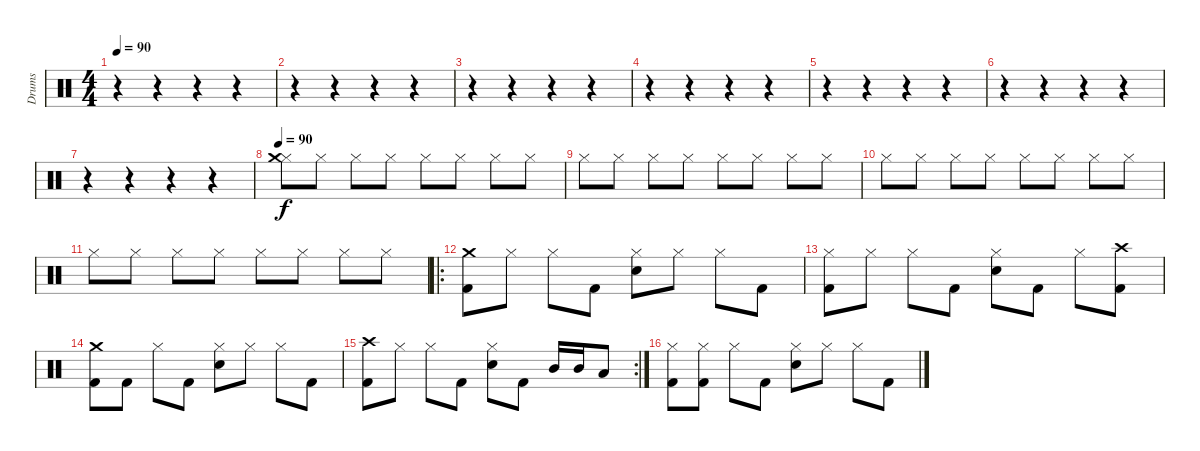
\track ("Drums" "Drums") {instrument percussion}
\staff {score}
\articulation defaults
\ts (4 4)
\tempo 90
\clef neutral
\ks c
r.4{dy f} r.4 r.4 r.4 |
r.4 r.4 r.4 r.4 |
r.4 r.4 r.4 r.4 |
r.4 r.4 r.4 r.4 |
r.4 r.4 r.4 r.4 |
r.4 r.4 r.4 r.4 |
r.4 r.4 r.4 r.4 |
\tempo 90
("Hi-Hat (closed)" "Crash medium (hit)").8 "Hi-Hat (closed)".8 "Hi-Hat (closed)".8 "Hi-Hat (closed)".8 "Hi-Hat (closed)".8 "Hi-Hat (closed)".8 "Hi-Hat (closed)".8 "Hi-Hat (closed)".8 |
"Hi-Hat (closed)".8 "Hi-Hat (closed)".8 "Hi-Hat (closed)".8 "Hi-Hat (closed)".8 "Hi-Hat (closed)".8 "Hi-Hat (closed)".8 "Hi-Hat (closed)".8 "Hi-Hat (closed)".8 |
"Hi-Hat (closed)".8 "Hi-Hat (closed)".8 "Hi-Hat (closed)".8 "Hi-Hat (closed)".8 "Hi-Hat (closed)".8 "Hi-Hat (closed)".8 "Hi-Hat (closed)".8 "Hi-Hat (closed)".8 |
"Hi-Hat (closed)".8 "Hi-Hat (closed)".8 "Hi-Hat (closed)".8 "Hi-Hat (closed)".8 "Hi-Hat (closed)".8 "Hi-Hat (closed)".8 "Hi-Hat (closed)".8 "Hi-Hat (closed)".8 |
\ro
("Crash medium (hit)" "Kick (hit) 2").8 "Hi-Hat (closed)".8 "Hi-Hat (closed)".8 "Kick (hit) 2".8 ("Hi-Hat (closed)" "Snare (hit) 2").8 "Hi-Hat (closed)".8 "Hi-Hat (closed)".8 "Kick (hit) 2".8 |
("Kick (hit) 2" "Hi-Hat (closed)").8 "Hi-Hat (closed)".8 "Hi-Hat (closed)".8 "Kick (hit) 2".8 ("Snare (hit) 2" "Hi-Hat (closed)").8 "Kick (hit) 2".8 "Hi-Hat (closed)".8 ("Kick (hit) 2" "Crash high (hit)").8 |
("Crash medium (hit)" "Kick (hit) 2").8 "Kick (hit) 2".8 "Hi-Hat (closed)".8 "Kick (hit) 2".8 ("Hi-Hat (closed)" "Snare (hit) 2").8 "Hi-Hat (closed)".8 "Hi-Hat (closed)".8 "Kick (hit) 2".8 |
\rc 2
("Kick (hit) 2" "Crash high (hit)").8 "Hi-Hat (closed)".8 "Hi-Hat (closed)".8 "Kick (hit) 2".8 ("Snare (hit) 2" "Hi-Hat (closed)").8 "Kick (hit) 2".8 "Mid Tom (hit)".16 "Mid Tom (hit)".16 "Low Tom (hit)".8 |
("Hi-Hat (closed)" "Kick (hit) 2").8 ("Kick (hit) 2" "Hi-Hat (closed)").8 "Hi-Hat (closed)".8 "Kick (hit) 2".8 ("Hi-Hat (closed)" "Snare (hit) 2").8 "Hi-Hat (closed)".8 "Hi-Hat (closed)".8 "Kick (hit) 2".8
